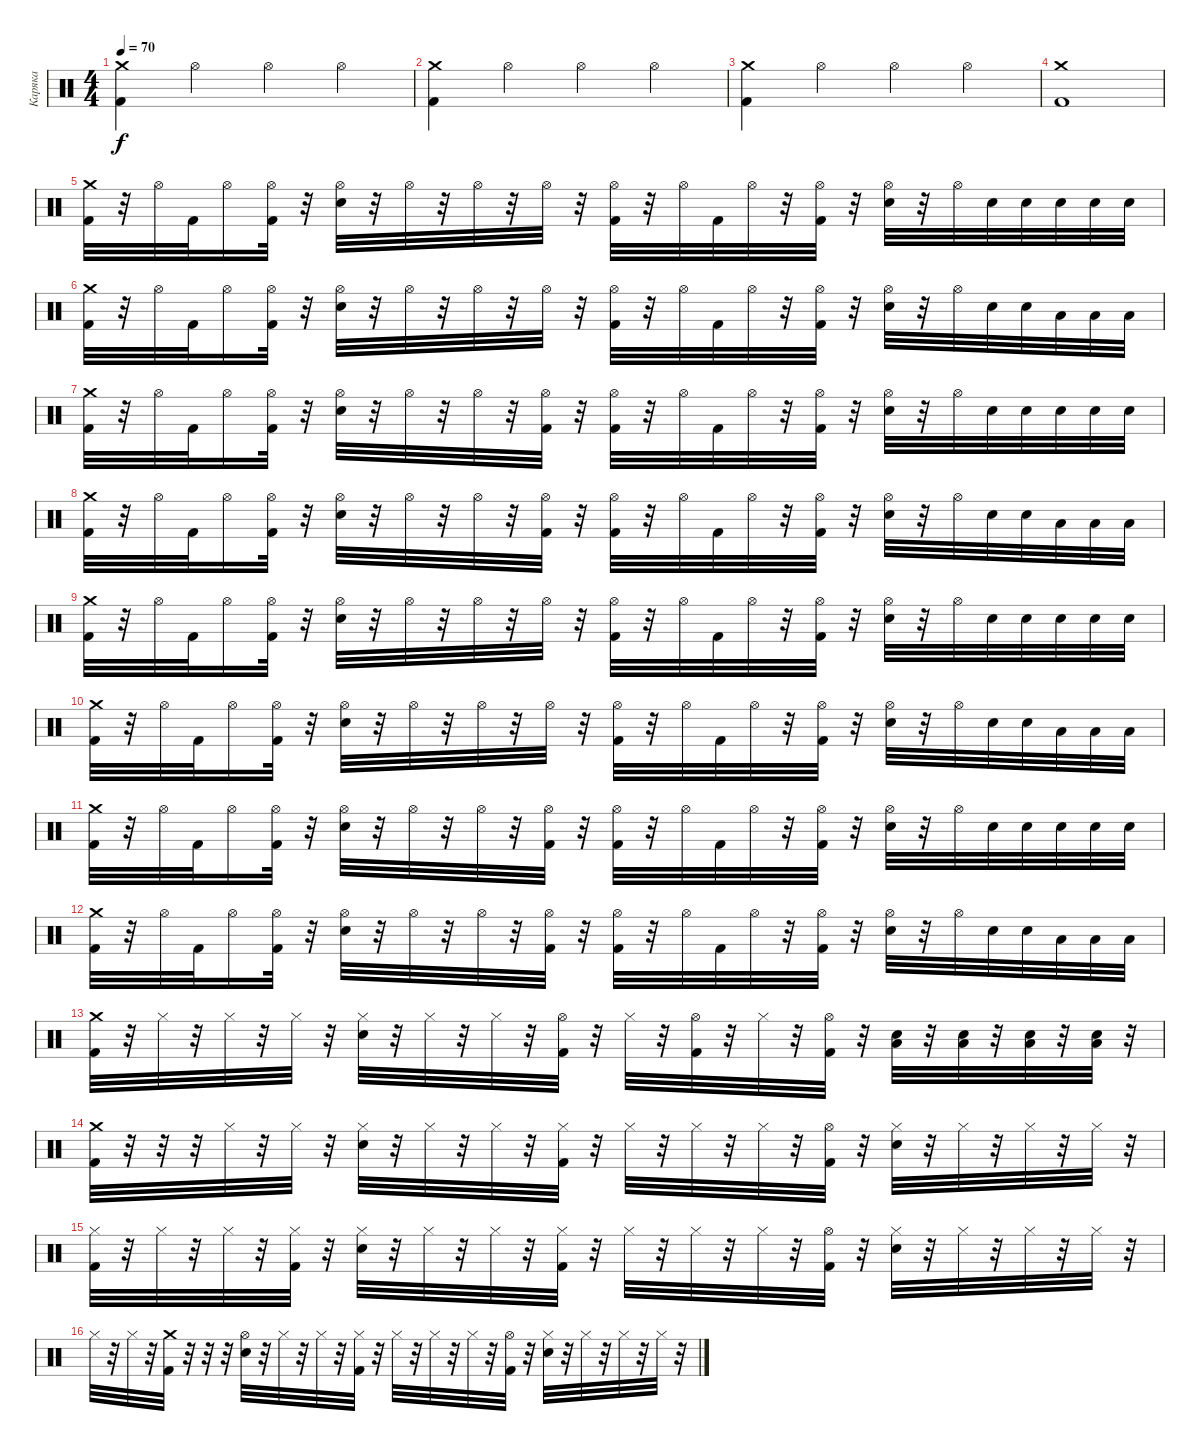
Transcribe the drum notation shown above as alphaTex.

\track ("Каряка" "Каряка") {instrument percussion}
\staff {score}
\articulation defaults
\ts (4 4)
\tempo 70
\clef neutral
\ks c
("Crash medium (hit)" "Kick (hit) 2").4{dy f} "Hi-Hat (open)".4 "Hi-Hat (open)".4 "Hi-Hat (open)".4 |
("Crash medium (hit)" "Kick (hit) 2").4 "Hi-Hat (open)".4 "Hi-Hat (open)".4 "Hi-Hat (open)".4 |
("Crash medium (hit)" "Kick (hit) 2").4 "Hi-Hat (open)".4 "Hi-Hat (open)".4 "Hi-Hat (open)".4 |
("Crash medium (hit)" "Kick (hit) 2").1 |
("Crash medium (hit)" "Kick (hit) 2").32 r.32 "Hi-Hat (open)".32 "Kick (hit) 2".32 "Hi-Hat (open)".16 ("Hi-Hat (open)" "Kick (hit) 2").32 r.32 ("Hi-Hat (open)" "Snare (hit) 2").32 r.32 "Hi-Hat (open)".32 r.32 "Hi-Hat (open)".32 r.32 "Hi-Hat (open)".32 r.32 ("Hi-Hat (open)" "Kick (hit) 2").32 r.32 "Hi-Hat (open)".32 "Kick (hit) 2".32 "Hi-Hat (open)".32 r.32 ("Hi-Hat (open)" "Kick (hit) 2").32 r.32 ("Hi-Hat (open)" "Snare (hit) 2").32 r.32 "Hi-Hat (open)".32 "Snare (hit) 2".32 "Snare (hit) 2".32 "Snare (hit) 2".32 "Snare (hit) 2".32 "Snare (hit) 2".32 |
("Crash medium (hit)" "Kick (hit) 2").32 r.32 "Hi-Hat (open)".32 "Kick (hit) 2".32 "Hi-Hat (open)".16 ("Hi-Hat (open)" "Kick (hit) 2").32 r.32 ("Hi-Hat (open)" "Snare (hit) 2").32 r.32 "Hi-Hat (open)".32 r.32 "Hi-Hat (open)".32 r.32 "Hi-Hat (open)".32 r.32 ("Hi-Hat (open)" "Kick (hit) 2").32 r.32 "Hi-Hat (open)".32 "Kick (hit) 2".32 "Hi-Hat (open)".32 r.32 ("Hi-Hat (open)" "Kick (hit) 2").32 r.32 ("Hi-Hat (open)" "Snare (hit) 2").32 r.32 "Hi-Hat (open)".32 "Snare (hit) 2".32 "Snare (hit) 2".32 "Low Tom (hit)".32 "Low Tom (hit)".32 "Low Tom (hit)".32 |
("Crash medium (hit)" "Kick (hit) 2").32 r.32 "Hi-Hat (open)".32 "Kick (hit) 2".32 "Hi-Hat (open)".16 ("Hi-Hat (open)" "Kick (hit) 2").32 r.32 ("Hi-Hat (open)" "Snare (hit) 2").32 r.32 "Hi-Hat (open)".32 r.32 "Hi-Hat (open)".32 r.32 ("Hi-Hat (open)" "Kick (hit) 2").32 r.32 ("Hi-Hat (open)" "Kick (hit) 2").32 r.32 "Hi-Hat (open)".32 "Kick (hit) 2".32 "Hi-Hat (open)".32 r.32 ("Hi-Hat (open)" "Kick (hit) 2").32 r.32 ("Hi-Hat (open)" "Snare (hit) 2").32 r.32 "Hi-Hat (open)".32 "Snare (hit) 2".32 "Snare (hit) 2".32 "Snare (hit) 2".32 "Snare (hit) 2".32 "Snare (hit) 2".32 |
("Crash medium (hit)" "Kick (hit) 2").32 r.32 "Hi-Hat (open)".32 "Kick (hit) 2".32 "Hi-Hat (open)".16 ("Hi-Hat (open)" "Kick (hit) 2").32 r.32 ("Hi-Hat (open)" "Snare (hit) 2").32 r.32 "Hi-Hat (open)".32 r.32 "Hi-Hat (open)".32 r.32 ("Hi-Hat (open)" "Kick (hit) 2").32 r.32 ("Hi-Hat (open)" "Kick (hit) 2").32 r.32 "Hi-Hat (open)".32 "Kick (hit) 2".32 "Hi-Hat (open)".32 r.32 ("Hi-Hat (open)" "Kick (hit) 2").32 r.32 ("Hi-Hat (open)" "Snare (hit) 2").32 r.32 "Hi-Hat (open)".32 "Snare (hit) 2".32 "Snare (hit) 2".32 "Low Tom (hit)".32 "Low Tom (hit)".32 "Low Tom (hit)".32 |
("Crash medium (hit)" "Kick (hit) 2").32 r.32 "Hi-Hat (open)".32 "Kick (hit) 2".32 "Hi-Hat (open)".16 ("Hi-Hat (open)" "Kick (hit) 2").32 r.32 ("Hi-Hat (open)" "Snare (hit) 2").32 r.32 "Hi-Hat (open)".32 r.32 "Hi-Hat (open)".32 r.32 "Hi-Hat (open)".32 r.32 ("Hi-Hat (open)" "Kick (hit) 2").32 r.32 "Hi-Hat (open)".32 "Kick (hit) 2".32 "Hi-Hat (open)".32 r.32 ("Hi-Hat (open)" "Kick (hit) 2").32 r.32 ("Hi-Hat (open)" "Snare (hit) 2").32 r.32 "Hi-Hat (open)".32 "Snare (hit) 2".32 "Snare (hit) 2".32 "Snare (hit) 2".32 "Snare (hit) 2".32 "Snare (hit) 2".32 |
("Crash medium (hit)" "Kick (hit) 2").32 r.32 "Hi-Hat (open)".32 "Kick (hit) 2".32 "Hi-Hat (open)".16 ("Hi-Hat (open)" "Kick (hit) 2").32 r.32 ("Hi-Hat (open)" "Snare (hit) 2").32 r.32 "Hi-Hat (open)".32 r.32 "Hi-Hat (open)".32 r.32 "Hi-Hat (open)".32 r.32 ("Hi-Hat (open)" "Kick (hit) 2").32 r.32 "Hi-Hat (open)".32 "Kick (hit) 2".32 "Hi-Hat (open)".32 r.32 ("Hi-Hat (open)" "Kick (hit) 2").32 r.32 ("Hi-Hat (open)" "Snare (hit) 2").32 r.32 "Hi-Hat (open)".32 "Snare (hit) 2".32 "Snare (hit) 2".32 "Low Tom (hit)".32 "Low Tom (hit)".32 "Low Tom (hit)".32 |
("Crash medium (hit)" "Kick (hit) 2").32 r.32 "Hi-Hat (open)".32 "Kick (hit) 2".32 "Hi-Hat (open)".16 ("Hi-Hat (open)" "Kick (hit) 2").32 r.32 ("Hi-Hat (open)" "Snare (hit) 2").32 r.32 "Hi-Hat (open)".32 r.32 "Hi-Hat (open)".32 r.32 ("Hi-Hat (open)" "Kick (hit) 2").32 r.32 ("Hi-Hat (open)" "Kick (hit) 2").32 r.32 "Hi-Hat (open)".32 "Kick (hit) 2".32 "Hi-Hat (open)".32 r.32 ("Hi-Hat (open)" "Kick (hit) 2").32 r.32 ("Hi-Hat (open)" "Snare (hit) 2").32 r.32 "Hi-Hat (open)".32 "Snare (hit) 2".32 "Snare (hit) 2".32 "Snare (hit) 2".32 "Snare (hit) 2".32 "Snare (hit) 2".32 |
("Crash medium (hit)" "Kick (hit) 2").32 r.32 "Hi-Hat (open)".32 "Kick (hit) 2".32 "Hi-Hat (open)".16 ("Hi-Hat (open)" "Kick (hit) 2").32 r.32 ("Hi-Hat (open)" "Snare (hit) 2").32 r.32 "Hi-Hat (open)".32 r.32 "Hi-Hat (open)".32 r.32 ("Hi-Hat (open)" "Kick (hit) 2").32 r.32 ("Hi-Hat (open)" "Kick (hit) 2").32 r.32 "Hi-Hat (open)".32 "Kick (hit) 2".32 "Hi-Hat (open)".32 r.32 ("Hi-Hat (open)" "Kick (hit) 2").32 r.32 ("Hi-Hat (open)" "Snare (hit) 2").32 r.32 "Hi-Hat (open)".32 "Snare (hit) 2".32 "Snare (hit) 2".32 "Low Tom (hit)".32 "Low Tom (hit)".32 "Low Tom (hit)".32 |
("Crash medium (hit)" "Kick (hit) 2").32 r.32 "Hi-Hat (closed)".32 r.32 "Hi-Hat (closed)".32 r.32 "Hi-Hat (closed)".32 r.32 ("Hi-Hat (closed)" "Snare (hit) 2").32 r.32 "Hi-Hat (closed)".32 r.32 "Hi-Hat (closed)".32 r.32 ("Hi-Hat (open)" "Kick (hit) 2").32 r.32 "Hi-Hat (closed)".32 r.32 ("Hi-Hat (open)" "Kick (hit) 2").32 r.32 "Hi-Hat (closed)".32 r.32 ("Hi-Hat (open)" "Kick (hit) 2").32 r.32 ("Low Tom (hit)" "Snare (hit) 2").32 r.32 ("Low Tom (hit)" "Snare (hit) 2").32 r.32 ("Low Tom (hit)" "Snare (hit) 2").32 r.32 ("Low Tom (hit)" "Snare (hit) 2").32 r.32 |
("Crash medium (hit)" "Kick (hit) 2").32 r.32 r.32 r.32 "Hi-Hat (closed)".32 r.32 "Hi-Hat (closed)".32 r.32 ("Hi-Hat (closed)" "Snare (hit) 2").32 r.32 "Hi-Hat (closed)".32 r.32 "Hi-Hat (closed)".32 r.32 ("Hi-Hat (closed)" "Kick (hit) 2").32 r.32 "Hi-Hat (closed)".32 r.32 "Hi-Hat (closed)".32 r.32 "Hi-Hat (closed)".32 r.32 ("Hi-Hat (open)" "Kick (hit) 2").32 r.32 ("Hi-Hat (closed)" "Snare (hit) 2").32 r.32 "Hi-Hat (closed)".32 r.32 "Hi-Hat (closed)".32 r.32 "Hi-Hat (closed)".32 r.32 |
("Hi-Hat (closed)" "Kick (hit) 2").32 r.32 "Hi-Hat (closed)".32 r.32 "Hi-Hat (closed)".32 r.32 ("Hi-Hat (closed)" "Kick (hit) 2").32 r.32 ("Hi-Hat (closed)" "Snare (hit) 2").32 r.32 "Hi-Hat (closed)".32 r.32 "Hi-Hat (closed)".32 r.32 ("Hi-Hat (closed)" "Kick (hit) 2").32 r.32 "Hi-Hat (closed)".32 r.32 "Hi-Hat (closed)".32 r.32 "Hi-Hat (closed)".32 r.32 ("Hi-Hat (open)" "Kick (hit) 2").32 r.32 ("Hi-Hat (closed)" "Snare (hit) 2").32 r.32 "Hi-Hat (closed)".32 r.32 "Hi-Hat (closed)".32 r.32 "Hi-Hat (closed)".32 r.32 |
"Hi-Hat (closed)".32 r.32 "Hi-Hat (closed)".32 r.32 ("Crash medium (hit)" "Kick (hit) 2").32 r.32 r.32 r.32 ("Hi-Hat (open)" "Snare (hit) 2").32 r.32 "Hi-Hat (closed)".32 r.32 "Hi-Hat (closed)".32 r.32 ("Hi-Hat (closed)" "Kick (hit) 2").32 r.32 "Hi-Hat (closed)".32 r.32 "Hi-Hat (closed)".32 r.32 "Hi-Hat (closed)".32 r.32 ("Hi-Hat (open)" "Kick (hit) 2").32 r.32 ("Hi-Hat (closed)" "Snare (hit) 2").32 r.32 "Hi-Hat (closed)".32 r.32 "Hi-Hat (closed)".32 r.32 "Hi-Hat (closed)".32 r.32
